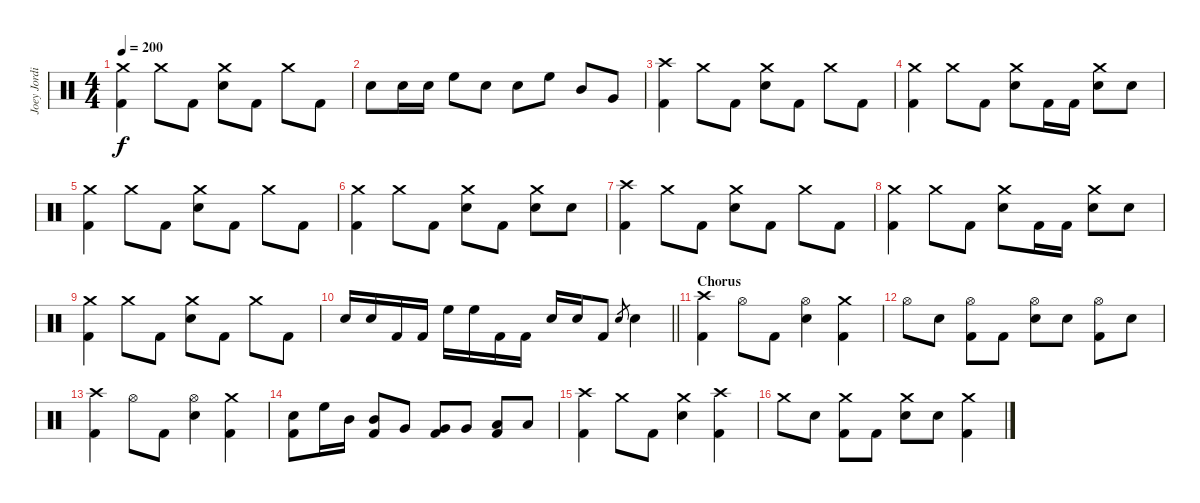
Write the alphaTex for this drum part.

\track ("Joey Jordison" "Joey Jordi") {instrument percussion}
\staff {score}
\articulation defaults
\ts (4 4)
\tempo 200
\clef neutral
\ks c
("Crash medium (hit)" "Kick (hit) 2").4{dy f} "Crash medium (hit)".8 "Kick (hit) 2".8 ("Crash medium (hit)" "Electric Snare (hit)").8 "Kick (hit) 2".8 "Crash medium (hit)".8 "Kick (hit) 2".8 |
"Electric Snare (hit)".8 "Electric Snare (hit)".16 "Electric Snare (hit)".16 "High Floor Tom (hit)".8 "Electric Snare (hit)".8 "Electric Snare (hit)".8 "High Floor Tom (hit)".8 "Mid Tom (hit)".8 "Very Low Tom (hit)".8 |
("Crash high (hit)" "Kick (hit) 2").4 "Crash medium (hit)".8 "Kick (hit) 2".8 ("Crash medium (hit)" "Electric Snare (hit)").8 "Kick (hit) 2".8 "Crash medium (hit)".8 "Kick (hit) 2".8 |
("Crash medium (hit)" "Kick (hit) 2").4 "Crash medium (hit)".8 "Kick (hit) 2".8 ("Crash medium (hit)" "Electric Snare (hit)").8 "Kick (hit) 2".16 "Kick (hit) 2".16 ("Crash medium (hit)" "Electric Snare (hit)").8 "Electric Snare (hit)".8 |
("Crash medium (hit)" "Kick (hit) 2").4 "Crash medium (hit)".8 "Kick (hit) 2".8 ("Crash medium (hit)" "Electric Snare (hit)").8 "Kick (hit) 2".8 "Crash medium (hit)".8 "Kick (hit) 2".8 |
("Crash medium (hit)" "Kick (hit) 2").4 "Crash medium (hit)".8 "Kick (hit) 2".8 ("Crash medium (hit)" "Electric Snare (hit)").8 "Kick (hit) 2".8 ("Crash medium (hit)" "Electric Snare (hit)").8 "Electric Snare (hit)".8 |
("Crash high (hit)" "Kick (hit) 2").4 "Crash medium (hit)".8 "Kick (hit) 2".8 ("Crash medium (hit)" "Electric Snare (hit)").8 "Kick (hit) 2".8 "Crash medium (hit)".8 "Kick (hit) 2".8 |
("Crash medium (hit)" "Kick (hit) 2").4 "Crash medium (hit)".8 "Kick (hit) 2".8 ("Crash medium (hit)" "Electric Snare (hit)").8 "Kick (hit) 2".16 "Kick (hit) 2".16 ("Crash medium (hit)" "Electric Snare (hit)").8 "Electric Snare (hit)".8 |
("Crash medium (hit)" "Kick (hit) 2").4 "Crash medium (hit)".8 "Kick (hit) 2".8 ("Crash medium (hit)" "Electric Snare (hit)").8 "Kick (hit) 2".8 "Crash medium (hit)".8 "Kick (hit) 2".8 |
\barLineRight lightlight "Electric Snare (hit)".16 "Electric Snare (hit)".16 "Kick (hit) 2".16 "Kick (hit) 2".16 "High Floor Tom (hit)".16 "High Floor Tom (hit)".16 "Kick (hit) 2".16 "Kick (hit) 2".16 "Electric Snare (hit)".16 "Electric Snare (hit)".16 "Kick (hit) 2".8 "Electric Snare (hit)".8{gr} "Electric Snare (hit)".4
|
\section ("" "Chorus")
("Crash high (hit)" "Kick (hit) 2").4 "Hi-Hat (open)".8 "Kick (hit) 2".8 ("Hi-Hat (open)" "Electric Snare (hit)").4 ("Crash medium (hit)" "Kick (hit) 2").4 |
"Hi-Hat (open)".8 "Electric Snare (hit)".8 ("Hi-Hat (open)" "Kick (hit) 2").8 "Kick (hit) 2".8 ("Hi-Hat (open)" "Electric Snare (hit)").8 "Electric Snare (hit)".8 ("Hi-Hat (open)" "Kick (hit) 2").8 "Electric Snare (hit)".8 |
("Crash high (hit)" "Kick (hit) 2").4 "Hi-Hat (open)".8 "Kick (hit) 2".8 ("Hi-Hat (open)" "Electric Snare (hit)").4 ("Crash medium (hit)" "Kick (hit) 2").4 |
("Electric Snare (hit)" "Kick (hit) 2").8 "High Floor Tom (hit)".16 "Mid Tom (hit)".16 ("Mid Tom (hit)" "Kick (hit) 2").8 "Very Low Tom (hit)".8 ("Very Low Tom (hit)" "Kick (hit) 2").8 "Very Low Tom (hit)".8 ("Low Floor Tom (hit)" "Kick (hit) 2").8 "Low Floor Tom (hit)".8 |
("Crash high (hit)" "Kick (hit) 2").4 "Crash medium (hit)".8 "Kick (hit) 2".8 ("Crash medium (hit)" "Electric Snare (hit)").4 ("Crash high (hit)" "Kick (hit) 2").4 |
"Crash medium (hit)".8 "Electric Snare (hit)".8 ("Crash medium (hit)" "Kick (hit) 2").8 "Kick (hit) 2".8 ("Crash medium (hit)" "Electric Snare (hit)").8 "Electric Snare (hit)".8 ("Crash medium (hit)" "Kick (hit) 2").4
